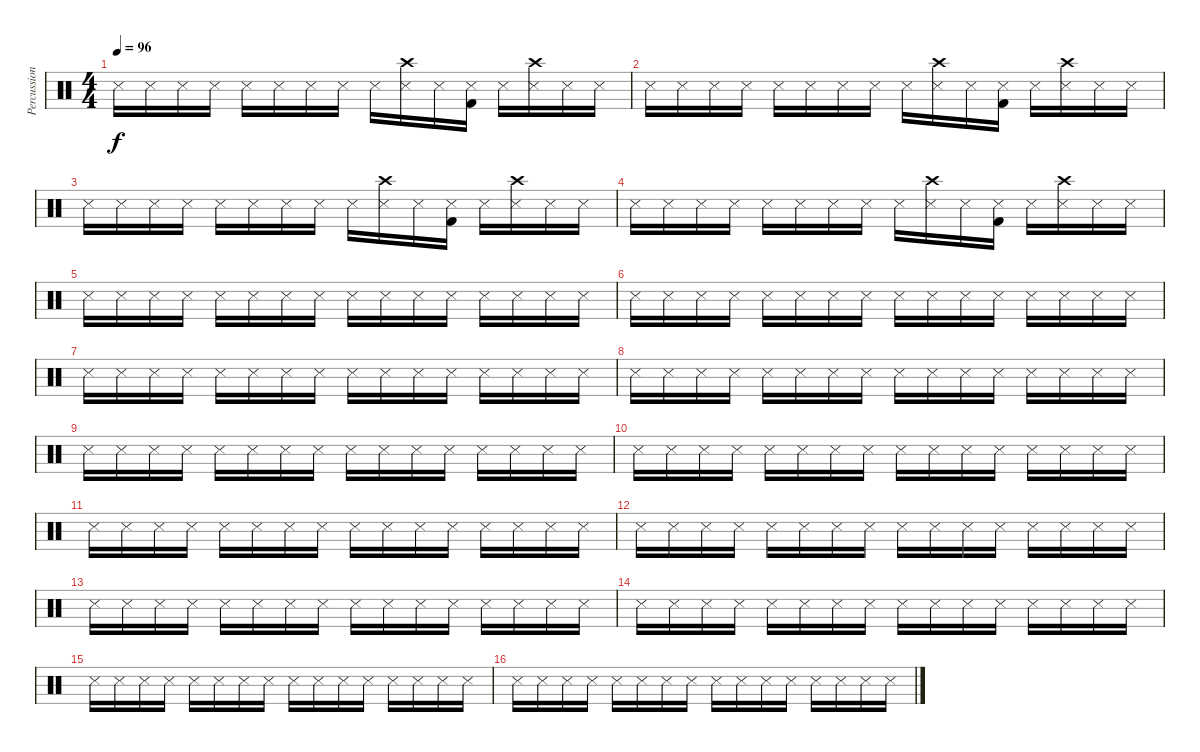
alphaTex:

\track ("Percussion 3 diff" "Percussion") {instrument percussion}
\staff {score}
\articulation defaults
\ts (4 4)
\tempo 96
\clef neutral
\ks c "Snare (side stick) 3".16{dy f} "Snare (side stick) 3".16 "Snare (side stick) 3".16 "Snare (side stick) 3".16 "Snare (side stick) 3".16 "Snare (side stick) 3".16 "Snare (side stick) 3".16 "Snare (side stick) 3".16 "Snare (side stick) 3".16
("Snare (side stick) 3" "Crash high (hit)").16 "Snare (side stick) 3".16 ("Snare (side stick) 3" "Kick (hit) 2").16 "Snare (side stick) 3".16 ("Snare (side stick) 3" "Crash high (hit)").16 "Snare (side stick) 3".16 "Snare (side stick) 3".16 |
"Snare (side stick) 3".16 "Snare (side stick) 3".16 "Snare (side stick) 3".16 "Snare (side stick) 3".16 "Snare (side stick) 3".16 "Snare (side stick) 3".16 "Snare (side stick) 3".16 "Snare (side stick) 3".16 "Snare (side stick) 3".16 ("Snare (side stick) 3" "Crash high (hit)").16 "Snare (side stick) 3".16 ("Snare (side stick) 3" "Kick (hit) 2").16 "Snare (side stick) 3".16 ("Snare (side stick) 3" "Crash high (hit)").16 "Snare (side stick) 3".16 "Snare (side stick) 3".16 |
"Snare (side stick) 3".16 "Snare (side stick) 3".16 "Snare (side stick) 3".16 "Snare (side stick) 3".16 "Snare (side stick) 3".16 "Snare (side stick) 3".16 "Snare (side stick) 3".16 "Snare (side stick) 3".16 "Snare (side stick) 3".16 ("Snare (side stick) 3" "Crash high (hit)").16 "Snare (side stick) 3".16 ("Snare (side stick) 3" "Kick (hit) 2").16 "Snare (side stick) 3".16 ("Snare (side stick) 3" "Crash high (hit)").16 "Snare (side stick) 3".16 "Snare (side stick) 3".16 |
"Snare (side stick) 3".16 "Snare (side stick) 3".16 "Snare (side stick) 3".16 "Snare (side stick) 3".16 "Snare (side stick) 3".16 "Snare (side stick) 3".16 "Snare (side stick) 3".16 "Snare (side stick) 3".16 "Snare (side stick) 3".16 ("Snare (side stick) 3" "Crash high (hit)").16 "Snare (side stick) 3".16 ("Snare (side stick) 3" "Kick (hit) 2").16 "Snare (side stick) 3".16 ("Snare (side stick) 3" "Crash high (hit)").16 "Snare (side stick) 3".16 "Snare (side stick) 3".16 |
"Snare (side stick) 3".16 "Snare (side stick) 3".16 "Snare (side stick) 3".16 "Snare (side stick) 3".16 "Snare (side stick) 3".16 "Snare (side stick) 3".16 "Snare (side stick) 3".16 "Snare (side stick) 3".16 "Snare (side stick) 3".16 "Snare (side stick) 3".16 "Snare (side stick) 3".16 "Snare (side stick) 3".16 "Snare (side stick) 3".16 "Snare (side stick) 3".16 "Snare (side stick) 3".16 "Snare (side stick) 3".16 |
"Snare (side stick) 3".16 "Snare (side stick) 3".16 "Snare (side stick) 3".16 "Snare (side stick) 3".16 "Snare (side stick) 3".16 "Snare (side stick) 3".16 "Snare (side stick) 3".16 "Snare (side stick) 3".16 "Snare (side stick) 3".16 "Snare (side stick) 3".16 "Snare (side stick) 3".16 "Snare (side stick) 3".16 "Snare (side stick) 3".16 "Snare (side stick) 3".16 "Snare (side stick) 3".16 "Snare (side stick) 3".16 |
"Snare (side stick) 3".16 "Snare (side stick) 3".16 "Snare (side stick) 3".16 "Snare (side stick) 3".16 "Snare (side stick) 3".16 "Snare (side stick) 3".16 "Snare (side stick) 3".16 "Snare (side stick) 3".16 "Snare (side stick) 3".16 "Snare (side stick) 3".16 "Snare (side stick) 3".16 "Snare (side stick) 3".16 "Snare (side stick) 3".16 "Snare (side stick) 3".16 "Snare (side stick) 3".16 "Snare (side stick) 3".16 |
"Snare (side stick) 3".16 "Snare (side stick) 3".16 "Snare (side stick) 3".16 "Snare (side stick) 3".16 "Snare (side stick) 3".16 "Snare (side stick) 3".16 "Snare (side stick) 3".16 "Snare (side stick) 3".16 "Snare (side stick) 3".16 "Snare (side stick) 3".16 "Snare (side stick) 3".16 "Snare (side stick) 3".16 "Snare (side stick) 3".16 "Snare (side stick) 3".16 "Snare (side stick) 3".16 "Snare (side stick) 3".16 |
"Snare (side stick) 3".16 "Snare (side stick) 3".16 "Snare (side stick) 3".16 "Snare (side stick) 3".16 "Snare (side stick) 3".16 "Snare (side stick) 3".16 "Snare (side stick) 3".16 "Snare (side stick) 3".16 "Snare (side stick) 3".16 "Snare (side stick) 3".16 "Snare (side stick) 3".16 "Snare (side stick) 3".16 "Snare (side stick) 3".16 "Snare (side stick) 3".16 "Snare (side stick) 3".16 "Snare (side stick) 3".16 |
"Snare (side stick) 3".16 "Snare (side stick) 3".16 "Snare (side stick) 3".16 "Snare (side stick) 3".16 "Snare (side stick) 3".16 "Snare (side stick) 3".16 "Snare (side stick) 3".16 "Snare (side stick) 3".16 "Snare (side stick) 3".16 "Snare (side stick) 3".16 "Snare (side stick) 3".16 "Snare (side stick) 3".16 "Snare (side stick) 3".16 "Snare (side stick) 3".16 "Snare (side stick) 3".16 "Snare (side stick) 3".16 |
"Snare (side stick) 3".16 "Snare (side stick) 3".16 "Snare (side stick) 3".16 "Snare (side stick) 3".16 "Snare (side stick) 3".16 "Snare (side stick) 3".16 "Snare (side stick) 3".16 "Snare (side stick) 3".16 "Snare (side stick) 3".16 "Snare (side stick) 3".16 "Snare (side stick) 3".16 "Snare (side stick) 3".16 "Snare (side stick) 3".16 "Snare (side stick) 3".16 "Snare (side stick) 3".16 "Snare (side stick) 3".16 |
"Snare (side stick) 3".16 "Snare (side stick) 3".16 "Snare (side stick) 3".16 "Snare (side stick) 3".16 "Snare (side stick) 3".16 "Snare (side stick) 3".16 "Snare (side stick) 3".16 "Snare (side stick) 3".16 "Snare (side stick) 3".16 "Snare (side stick) 3".16 "Snare (side stick) 3".16 "Snare (side stick) 3".16 "Snare (side stick) 3".16 "Snare (side stick) 3".16 "Snare (side stick) 3".16 "Snare (side stick) 3".16 |
"Snare (side stick) 3".16 "Snare (side stick) 3".16 "Snare (side stick) 3".16 "Snare (side stick) 3".16 "Snare (side stick) 3".16 "Snare (side stick) 3".16 "Snare (side stick) 3".16 "Snare (side stick) 3".16 "Snare (side stick) 3".16 "Snare (side stick) 3".16 "Snare (side stick) 3".16 "Snare (side stick) 3".16 "Snare (side stick) 3".16 "Snare (side stick) 3".16 "Snare (side stick) 3".16 "Snare (side stick) 3".16 |
"Snare (side stick) 3".16 "Snare (side stick) 3".16 "Snare (side stick) 3".16 "Snare (side stick) 3".16 "Snare (side stick) 3".16 "Snare (side stick) 3".16 "Snare (side stick) 3".16 "Snare (side stick) 3".16 "Snare (side stick) 3".16 "Snare (side stick) 3".16 "Snare (side stick) 3".16 "Snare (side stick) 3".16 "Snare (side stick) 3".16 "Snare (side stick) 3".16 "Snare (side stick) 3".16 "Snare (side stick) 3".16 |
"Snare (side stick) 3".16 "Snare (side stick) 3".16 "Snare (side stick) 3".16 "Snare (side stick) 3".16 "Snare (side stick) 3".16 "Snare (side stick) 3".16 "Snare (side stick) 3".16 "Snare (side stick) 3".16 "Snare (side stick) 3".16 "Snare (side stick) 3".16 "Snare (side stick) 3".16 "Snare (side stick) 3".16 "Snare (side stick) 3".16 "Snare (side stick) 3".16 "Snare (side stick) 3".16 "Snare (side stick) 3".16 |
"Snare (side stick) 3".16 "Snare (side stick) 3".16 "Snare (side stick) 3".16 "Snare (side stick) 3".16 "Snare (side stick) 3".16 "Snare (side stick) 3".16 "Snare (side stick) 3".16 "Snare (side stick) 3".16 "Snare (side stick) 3".16 "Snare (side stick) 3".16 "Snare (side stick) 3".16 "Snare (side stick) 3".16 "Snare (side stick) 3".16 "Snare (side stick) 3".16 "Snare (side stick) 3".16 "Snare (side stick) 3".16
